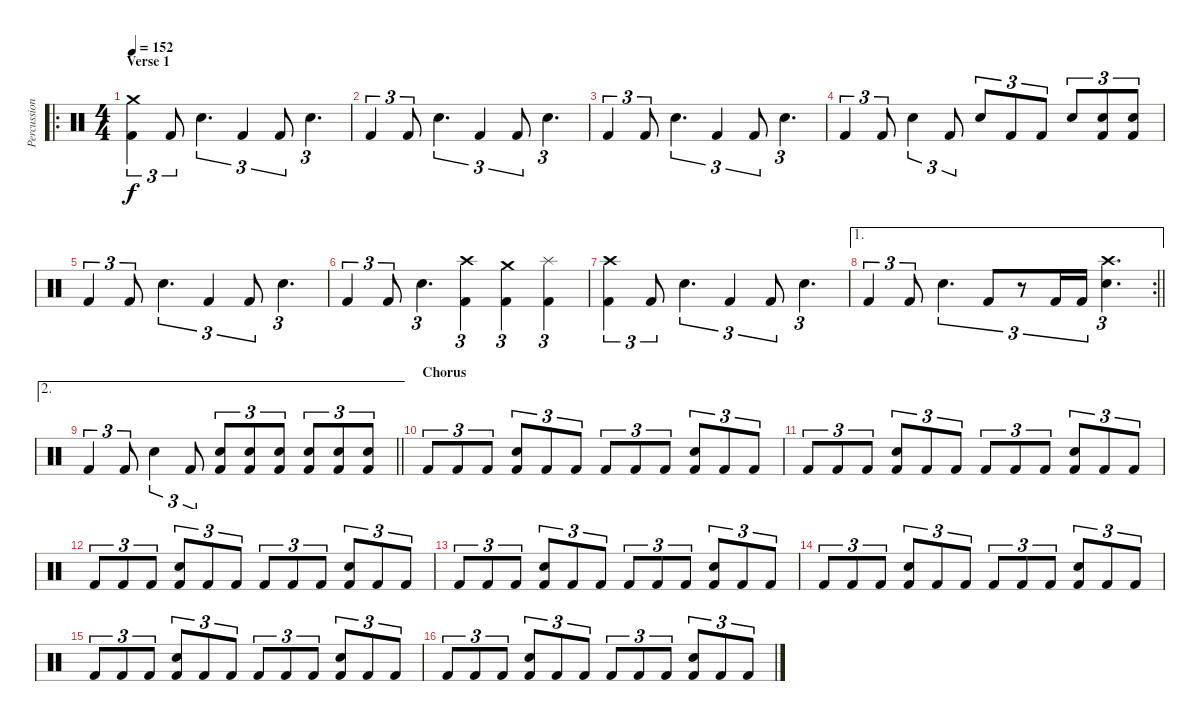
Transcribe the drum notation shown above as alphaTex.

\track ("Percussion" "Percussion") {instrument percussion}
\staff {score}
\articulation defaults
\ro
\ts (4 4)
\section ("" "Verse 1")
\tempo 152
\clef neutral
\ks c
("Kick (hit) 2" "Crash medium (hit)").4{tu (3 2) dy f} "Kick (hit) 2".8{tu (3 2)} "Electric Snare (hit)".4{d tu (3 2)} "Kick (hit) 2".4{tu (3 2)} "Kick (hit) 2".8{tu (3 2)} "Electric Snare (hit)".4{d tu (3 2)} |
"Kick (hit) 2".4{tu (3 2)} "Kick (hit) 2".8{tu (3 2)} "Electric Snare (hit)".4{d tu (3 2)} "Kick (hit) 2".4{tu (3 2)} "Kick (hit) 2".8{tu (3 2)} "Electric Snare (hit)".4{d tu (3 2)} |
"Kick (hit) 2".4{tu (3 2)} "Kick (hit) 2".8{tu (3 2)} "Electric Snare (hit)".4{d tu (3 2)} "Kick (hit) 2".4{tu (3 2)} "Kick (hit) 2".8{tu (3 2)} "Electric Snare (hit)".4{d tu (3 2)} |
"Kick (hit) 2".4{tu (3 2)} "Kick (hit) 2".8{tu (3 2)} "Electric Snare (hit)".4{tu (3 2)} "Kick (hit) 2".8{tu (3 2)} "Electric Snare (hit)".8{tu (3 2)} "Kick (hit) 2".8{tu (3 2)} "Kick (hit) 2".8{tu (3 2)} "Electric Snare (hit)".8{tu (3 2)} ("Kick (hit) 2" "Electric Snare (hit)").8{tu (3 2)} ("Kick (hit) 2" "Electric Snare (hit)").8{tu (3 2)} |
"Kick (hit) 2".4{tu (3 2)} "Kick (hit) 2".8{tu (3 2)} "Electric Snare (hit)".4{d tu (3 2)} "Kick (hit) 2".4{tu (3 2)} "Kick (hit) 2".8{tu (3 2)} "Electric Snare (hit)".4{d tu (3 2)} |
"Kick (hit) 2".4{tu (3 2)} "Kick (hit) 2".8{tu (3 2)} "Electric Snare (hit)".4{d tu (3 2)} ("Kick (hit) 2" "Crash high (hit)").4{tu (3 2)} ("Kick (hit) 2" "Crash medium (hit)").4{tu (3 2)} ("Kick (hit) 2" "Splash (hit)").4{tu (3 2)} |
("Kick (hit) 2" "Crash high (hit)").4{tu (3 2)} "Kick (hit) 2".8{tu (3 2)} "Electric Snare (hit)".4{d tu (3 2)} "Kick (hit) 2".4{tu (3 2)} "Kick (hit) 2".8{tu (3 2)} "Electric Snare (hit)".4{d tu (3 2)} |
\ae 1
\rc 2
\barLineRight lightlight "Kick (hit) 2".4{tu (3 2)} "Kick (hit) 2".8{tu (3 2)} "Electric Snare (hit)".4{d tu (3 2)} "Kick (hit) 2".8{tu (3 2)}
r.8{tu (3 2)} "Kick (hit) 2".16{tu (3 2)} "Kick (hit) 2".16{tu (3 2)} ("Electric Snare (hit)" "Crash high (hit)").4{d tu (3 2)} |
\ae 2
\barLineRight lightlight "Kick (hit) 2".4{tu (3 2)} "Kick (hit) 2".8{tu (3 2)} "Electric Snare (hit)".4{tu (3 2)} "Kick (hit) 2".8{tu (3 2)}
("Kick (hit) 2" "Electric Snare (hit)").8{tu (3 2)} ("Kick (hit) 2" "Electric Snare (hit)").8{tu (3 2)} ("Kick (hit) 2" "Electric Snare (hit)").8{tu (3 2)} ("Kick (hit) 2" "Electric Snare (hit)").8{tu (3 2)} ("Kick (hit) 2" "Electric Snare (hit)").8{tu (3 2)} ("Kick (hit) 2" "Electric Snare (hit)").8{tu (3 2)} |
\section ("" "Chorus")
"Kick (hit) 2".8{tu (3 2)} "Kick (hit) 2".8{tu (3 2)} "Kick (hit) 2".8{tu (3 2)} ("Kick (hit) 2" "Electric Snare (hit)").8{tu (3 2)} "Kick (hit) 2".8{tu (3 2)} "Kick (hit) 2".8{tu (3 2)} "Kick (hit) 2".8{tu (3 2)} "Kick (hit) 2".8{tu (3 2)} "Kick (hit) 2".8{tu (3 2)} ("Kick (hit) 2" "Electric Snare (hit)").8{tu (3 2)} "Kick (hit) 2".8{tu (3 2)} "Kick (hit) 2".8{tu (3 2)} |
"Kick (hit) 2".8{tu (3 2)} "Kick (hit) 2".8{tu (3 2)} "Kick (hit) 2".8{tu (3 2)} ("Kick (hit) 2" "Electric Snare (hit)").8{tu (3 2)} "Kick (hit) 2".8{tu (3 2)} "Kick (hit) 2".8{tu (3 2)} "Kick (hit) 2".8{tu (3 2)} "Kick (hit) 2".8{tu (3 2)} "Kick (hit) 2".8{tu (3 2)} ("Kick (hit) 2" "Electric Snare (hit)").8{tu (3 2)} "Kick (hit) 2".8{tu (3 2)} "Kick (hit) 2".8{tu (3 2)} |
"Kick (hit) 2".8{tu (3 2)} "Kick (hit) 2".8{tu (3 2)} "Kick (hit) 2".8{tu (3 2)} ("Kick (hit) 2" "Electric Snare (hit)").8{tu (3 2)} "Kick (hit) 2".8{tu (3 2)} "Kick (hit) 2".8{tu (3 2)} "Kick (hit) 2".8{tu (3 2)} "Kick (hit) 2".8{tu (3 2)} "Kick (hit) 2".8{tu (3 2)} ("Kick (hit) 2" "Electric Snare (hit)").8{tu (3 2)} "Kick (hit) 2".8{tu (3 2)} "Kick (hit) 2".8{tu (3 2)} |
"Kick (hit) 2".8{tu (3 2)} "Kick (hit) 2".8{tu (3 2)} "Kick (hit) 2".8{tu (3 2)} ("Kick (hit) 2" "Electric Snare (hit)").8{tu (3 2)} "Kick (hit) 2".8{tu (3 2)} "Kick (hit) 2".8{tu (3 2)} "Kick (hit) 2".8{tu (3 2)} "Kick (hit) 2".8{tu (3 2)} "Kick (hit) 2".8{tu (3 2)} ("Kick (hit) 2" "Electric Snare (hit)").8{tu (3 2)} "Kick (hit) 2".8{tu (3 2)} "Kick (hit) 2".8{tu (3 2)} |
"Kick (hit) 2".8{tu (3 2)} "Kick (hit) 2".8{tu (3 2)} "Kick (hit) 2".8{tu (3 2)} ("Kick (hit) 2" "Electric Snare (hit)").8{tu (3 2)} "Kick (hit) 2".8{tu (3 2)} "Kick (hit) 2".8{tu (3 2)} "Kick (hit) 2".8{tu (3 2)} "Kick (hit) 2".8{tu (3 2)} "Kick (hit) 2".8{tu (3 2)} ("Kick (hit) 2" "Electric Snare (hit)").8{tu (3 2)} "Kick (hit) 2".8{tu (3 2)} "Kick (hit) 2".8{tu (3 2)} |
"Kick (hit) 2".8{tu (3 2)} "Kick (hit) 2".8{tu (3 2)} "Kick (hit) 2".8{tu (3 2)} ("Kick (hit) 2" "Electric Snare (hit)").8{tu (3 2)} "Kick (hit) 2".8{tu (3 2)} "Kick (hit) 2".8{tu (3 2)} "Kick (hit) 2".8{tu (3 2)} "Kick (hit) 2".8{tu (3 2)} "Kick (hit) 2".8{tu (3 2)} ("Kick (hit) 2" "Electric Snare (hit)").8{tu (3 2)} "Kick (hit) 2".8{tu (3 2)} "Kick (hit) 2".8{tu (3 2)} |
"Kick (hit) 2".8{tu (3 2)} "Kick (hit) 2".8{tu (3 2)} "Kick (hit) 2".8{tu (3 2)} ("Kick (hit) 2" "Electric Snare (hit)").8{tu (3 2)} "Kick (hit) 2".8{tu (3 2)} "Kick (hit) 2".8{tu (3 2)} "Kick (hit) 2".8{tu (3 2)} "Kick (hit) 2".8{tu (3 2)} "Kick (hit) 2".8{tu (3 2)} ("Kick (hit) 2" "Electric Snare (hit)").8{tu (3 2)} "Kick (hit) 2".8{tu (3 2)} "Kick (hit) 2".8{tu (3 2)}
